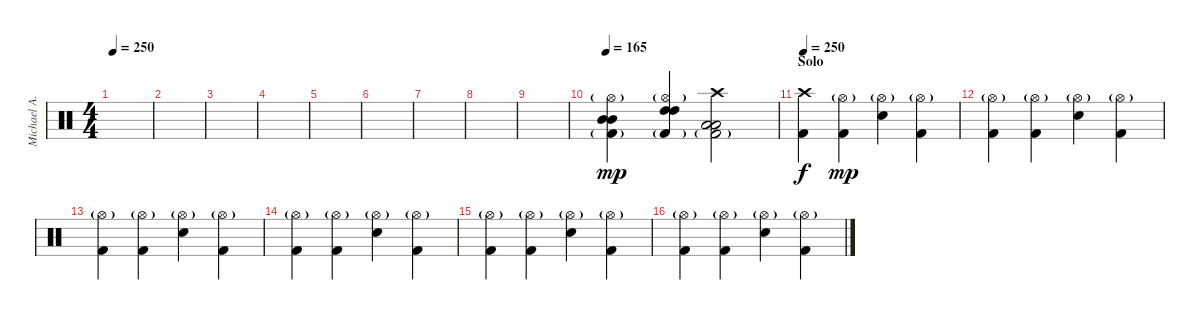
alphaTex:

\track ("Michael A." "Michael A.") {instrument percussion}
\staff {score}
\articulation defaults
\ts (4 4)
\tempo 250
\clef neutral
\ks c
|
|
|
|
|
|
|
|
|
\tempo 165
("Kick (hit) 2"{g} "Mid Tom (hit)" "Mid Tom (hit)" "Hi-Hat (open)"{g}).4{dy mp} ("Kick (hit) 2"{g} "High Tom (hit)" "High Tom (hit)" "Hi-Hat (open)"{g}).4 ("Kick (hit) 2"{g} "Low Tom (hit)" "Low Tom (hit)" "Crash high (hit)").2 |
\section ("" "Solo")
\tempo 250
("Kick (hit) 2" "Crash high (hit)").4{dy f} ("Kick (hit) 2" "Hi-Hat (open)"{g}).4{dy mp} ("Electric Snare (hit)" "Hi-Hat (open)"{g}).4 ("Kick (hit) 2" "Hi-Hat (open)"{g}).4 |
("Kick (hit) 2" "Hi-Hat (open)"{g}).4 ("Kick (hit) 2" "Hi-Hat (open)"{g}).4 ("Electric Snare (hit)" "Hi-Hat (open)"{g}).4 ("Kick (hit) 2" "Hi-Hat (open)"{g}).4 |
("Kick (hit) 2" "Hi-Hat (open)"{g}).4 ("Kick (hit) 2" "Hi-Hat (open)"{g}).4 ("Electric Snare (hit)" "Hi-Hat (open)"{g}).4 ("Kick (hit) 2" "Hi-Hat (open)"{g}).4 |
("Kick (hit) 2" "Hi-Hat (open)"{g}).4 ("Kick (hit) 2" "Hi-Hat (open)"{g}).4 ("Electric Snare (hit)" "Hi-Hat (open)"{g}).4 ("Kick (hit) 2" "Hi-Hat (open)"{g}).4 |
("Kick (hit) 2" "Hi-Hat (open)"{g}).4 ("Kick (hit) 2" "Hi-Hat (open)"{g}).4 ("Electric Snare (hit)" "Hi-Hat (open)"{g}).4 ("Kick (hit) 2" "Hi-Hat (open)"{g}).4 |
("Kick (hit) 2" "Hi-Hat (open)"{g}).4 ("Kick (hit) 2" "Hi-Hat (open)"{g}).4 ("Electric Snare (hit)" "Hi-Hat (open)"{g}).4 ("Kick (hit) 2" "Hi-Hat (open)"{g}).4
